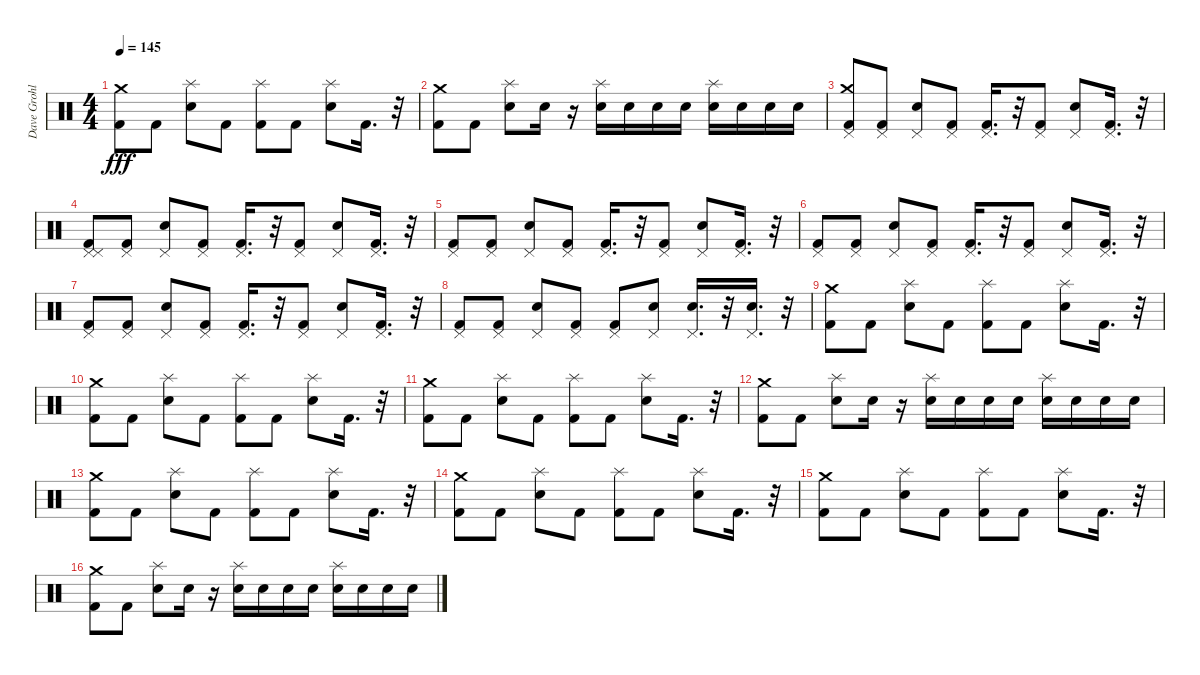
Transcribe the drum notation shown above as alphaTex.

\track ("Dave Grohl - Drums" "Dave Grohl") {instrument percussion}
\staff {score}
\articulation defaults
\ts (4 4)
\tempo 145
\clef neutral
\ks c
("Kick (hit) 2" "Crash medium (hit)").8{dy fff} "Kick (hit) 2".8 ("Splash (hit)" "Snare (hit) 2").8 "Kick (hit) 2".8 ("Splash (hit)" "Kick (hit) 2").8 "Kick (hit) 2".8 ("Splash (hit)" "Snare (hit) 2").8 "Kick (hit) 2".16{d} r.32 |
("Kick (hit) 2" "Crash medium (hit)").8 "Kick (hit) 2".8 ("Splash (hit)" "Snare (hit) 2").8 "Snare (hit) 2".16 r.16 ("Splash (hit)" "Snare (hit) 2").16 "Snare (hit) 2".16 "Snare (hit) 2".16 "Snare (hit) 2".16 ("Splash (hit)" "Snare (hit) 2").16 "Snare (hit) 2".16 "Snare (hit) 2".16 "Snare (hit) 2".16 |
("Pedal Hi-Hat (hit)" "Kick (hit) 2" "Crash medium (hit)").8 ("Pedal Hi-Hat (hit)" "Kick (hit) 2").8 ("Pedal Hi-Hat (hit)" "Snare (hit) 2").8 ("Pedal Hi-Hat (hit)" "Kick (hit) 2").8 ("Pedal Hi-Hat (hit)" "Kick (hit) 2").16{d} r.32 ("Pedal Hi-Hat (hit)" "Kick (hit) 2").8 ("Pedal Hi-Hat (hit)" "Snare (hit) 2").8 ("Pedal Hi-Hat (hit)" "Kick (hit) 2").16{d} r.32 |
("Pedal Hi-Hat (hit)" "Pedal Hi-Hat (hit)" "Kick (hit) 2").8 ("Pedal Hi-Hat (hit)" "Kick (hit) 2").8 ("Pedal Hi-Hat (hit)" "Snare (hit) 2").8 ("Pedal Hi-Hat (hit)" "Kick (hit) 2").8 ("Pedal Hi-Hat (hit)" "Kick (hit) 2").16{d} r.32 ("Pedal Hi-Hat (hit)" "Kick (hit) 2").8 ("Pedal Hi-Hat (hit)" "Snare (hit) 2").8 ("Pedal Hi-Hat (hit)" "Kick (hit) 2").16{d} r.32 |
("Pedal Hi-Hat (hit)" "Kick (hit) 2").8 ("Pedal Hi-Hat (hit)" "Kick (hit) 2").8 ("Pedal Hi-Hat (hit)" "Snare (hit) 2").8 ("Pedal Hi-Hat (hit)" "Kick (hit) 2").8 ("Pedal Hi-Hat (hit)" "Kick (hit) 2").16{d} r.32 ("Pedal Hi-Hat (hit)" "Kick (hit) 2").8 ("Pedal Hi-Hat (hit)" "Snare (hit) 2").8 ("Pedal Hi-Hat (hit)" "Kick (hit) 2").16{d} r.32 |
("Pedal Hi-Hat (hit)" "Kick (hit) 2").8 ("Pedal Hi-Hat (hit)" "Kick (hit) 2").8 ("Pedal Hi-Hat (hit)" "Snare (hit) 2").8 ("Pedal Hi-Hat (hit)" "Kick (hit) 2").8 ("Pedal Hi-Hat (hit)" "Kick (hit) 2").16{d} r.32 ("Pedal Hi-Hat (hit)" "Kick (hit) 2").8 ("Pedal Hi-Hat (hit)" "Snare (hit) 2").8 ("Pedal Hi-Hat (hit)" "Kick (hit) 2").16{d} r.32 |
("Pedal Hi-Hat (hit)" "Kick (hit) 2").8 ("Pedal Hi-Hat (hit)" "Kick (hit) 2").8 ("Pedal Hi-Hat (hit)" "Snare (hit) 2").8 ("Pedal Hi-Hat (hit)" "Kick (hit) 2").8 ("Pedal Hi-Hat (hit)" "Kick (hit) 2").16{d} r.32 ("Pedal Hi-Hat (hit)" "Kick (hit) 2").8 ("Pedal Hi-Hat (hit)" "Snare (hit) 2").8 ("Pedal Hi-Hat (hit)" "Kick (hit) 2").16{d} r.32 |
("Pedal Hi-Hat (hit)" "Kick (hit) 2").8 ("Pedal Hi-Hat (hit)" "Kick (hit) 2").8 ("Pedal Hi-Hat (hit)" "Snare (hit) 2").8 ("Pedal Hi-Hat (hit)" "Kick (hit) 2").8 ("Pedal Hi-Hat (hit)" "Kick (hit) 2").8 ("Pedal Hi-Hat (hit)" "Snare (hit) 2").8 ("Pedal Hi-Hat (hit)" "Snare (hit) 2").16{d} r.32 ("Pedal Hi-Hat (hit)" "Snare (hit) 2").16{d} r.32 |
("Kick (hit) 2" "Crash medium (hit)").8 "Kick (hit) 2".8 ("Splash (hit)" "Snare (hit) 2").8 "Kick (hit) 2".8 ("Splash (hit)" "Kick (hit) 2").8 "Kick (hit) 2".8 ("Splash (hit)" "Snare (hit) 2").8 "Kick (hit) 2".16{d} r.32 |
("Kick (hit) 2" "Crash medium (hit)").8 "Kick (hit) 2".8 ("Splash (hit)" "Snare (hit) 2").8 "Kick (hit) 2".8 ("Splash (hit)" "Kick (hit) 2").8 "Kick (hit) 2".8 ("Splash (hit)" "Snare (hit) 2").8 "Kick (hit) 2".16{d} r.32 |
("Kick (hit) 2" "Crash medium (hit)").8 "Kick (hit) 2".8 ("Splash (hit)" "Snare (hit) 2").8 "Kick (hit) 2".8 ("Splash (hit)" "Kick (hit) 2").8 "Kick (hit) 2".8 ("Splash (hit)" "Snare (hit) 2").8 "Kick (hit) 2".16{d} r.32 |
("Kick (hit) 2" "Crash medium (hit)").8 "Kick (hit) 2".8 ("Splash (hit)" "Snare (hit) 2").8 "Snare (hit) 2".16 r.16 ("Splash (hit)" "Snare (hit) 2").16 "Snare (hit) 2".16 "Snare (hit) 2".16 "Snare (hit) 2".16 ("Splash (hit)" "Snare (hit) 2").16 "Snare (hit) 2".16 "Snare (hit) 2".16 "Snare (hit) 2".16 |
("Kick (hit) 2" "Crash medium (hit)").8 "Kick (hit) 2".8 ("Splash (hit)" "Snare (hit) 2").8 "Kick (hit) 2".8 ("Splash (hit)" "Kick (hit) 2").8 "Kick (hit) 2".8 ("Splash (hit)" "Snare (hit) 2").8 "Kick (hit) 2".16{d} r.32 |
("Kick (hit) 2" "Crash medium (hit)").8 "Kick (hit) 2".8 ("Splash (hit)" "Snare (hit) 2").8 "Kick (hit) 2".8 ("Splash (hit)" "Kick (hit) 2").8 "Kick (hit) 2".8 ("Splash (hit)" "Snare (hit) 2").8 "Kick (hit) 2".16{d} r.32 |
("Kick (hit) 2" "Crash medium (hit)").8 "Kick (hit) 2".8 ("Splash (hit)" "Snare (hit) 2").8 "Kick (hit) 2".8 ("Splash (hit)" "Kick (hit) 2").8 "Kick (hit) 2".8 ("Splash (hit)" "Snare (hit) 2").8 "Kick (hit) 2".16{d} r.32 |
("Kick (hit) 2" "Crash medium (hit)").8 "Kick (hit) 2".8 ("Splash (hit)" "Snare (hit) 2").8 "Snare (hit) 2".16 r.16 ("Splash (hit)" "Snare (hit) 2").16 "Snare (hit) 2".16 "Snare (hit) 2".16 "Snare (hit) 2".16 ("Splash (hit)" "Snare (hit) 2").16 "Snare (hit) 2".16 "Snare (hit) 2".16 "Snare (hit) 2".16
